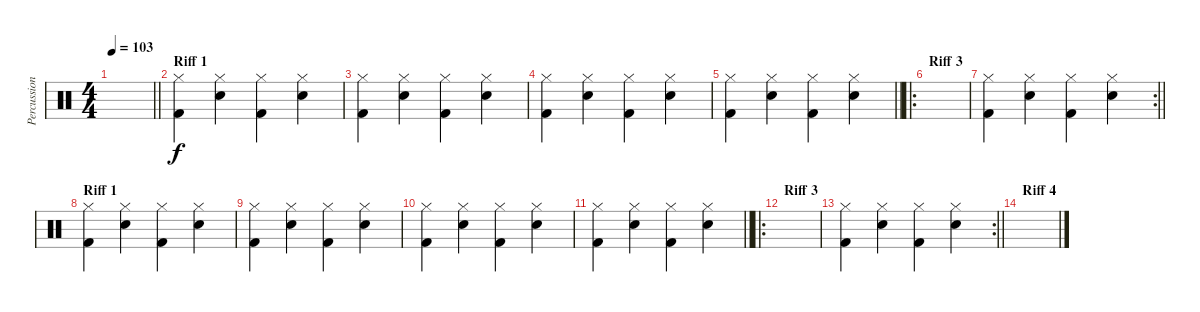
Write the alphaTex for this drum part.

\track ("Percussion" "Percussion") {instrument percussion}
\staff {score}
\articulation defaults
\ts (4 4)
\tempo 103
\clef neutral
\barLineRight lightlight
\ks c
|
\section ("" "Riff 1")
("Hi-Hat (closed)" "Kick (hit) 2").4 ("Hi-Hat (closed)" "Electric Snare (hit)").4 ("Hi-Hat (closed)" "Kick (hit) 2").4 ("Hi-Hat (closed)" "Electric Snare (hit)").4 |
("Hi-Hat (closed)" "Kick (hit) 2").4 ("Hi-Hat (closed)" "Electric Snare (hit)").4 ("Hi-Hat (closed)" "Kick (hit) 2").4 ("Hi-Hat (closed)" "Electric Snare (hit)").4 |
("Hi-Hat (closed)" "Kick (hit) 2").4 ("Hi-Hat (closed)" "Electric Snare (hit)").4 ("Hi-Hat (closed)" "Kick (hit) 2").4 ("Hi-Hat (closed)" "Electric Snare (hit)").4 |
\barLineRight lightlight
("Hi-Hat (closed)" "Kick (hit) 2").4 ("Hi-Hat (closed)" "Electric Snare (hit)").4 ("Hi-Hat (closed)" "Kick (hit) 2").4 ("Hi-Hat (closed)" "Electric Snare (hit)").4 |
\ro
\section ("" "Riff 3")
|
\rc 2
\barLineRight lightlight
("Hi-Hat (closed)" "Kick (hit) 2").4 ("Hi-Hat (closed)" "Electric Snare (hit)").4 ("Hi-Hat (closed)" "Kick (hit) 2").4 ("Hi-Hat (closed)" "Electric Snare (hit)").4 |
\section ("" "Riff 1")
("Hi-Hat (closed)" "Kick (hit) 2").4 ("Hi-Hat (closed)" "Electric Snare (hit)").4 ("Hi-Hat (closed)" "Kick (hit) 2").4 ("Hi-Hat (closed)" "Electric Snare (hit)").4 |
("Hi-Hat (closed)" "Kick (hit) 2").4 ("Hi-Hat (closed)" "Electric Snare (hit)").4 ("Hi-Hat (closed)" "Kick (hit) 2").4 ("Hi-Hat (closed)" "Electric Snare (hit)").4 |
("Hi-Hat (closed)" "Kick (hit) 2").4 ("Hi-Hat (closed)" "Electric Snare (hit)").4 ("Hi-Hat (closed)" "Kick (hit) 2").4 ("Hi-Hat (closed)" "Electric Snare (hit)").4 |
\barLineRight lightlight
("Hi-Hat (closed)" "Kick (hit) 2").4 ("Hi-Hat (closed)" "Electric Snare (hit)").4 ("Hi-Hat (closed)" "Kick (hit) 2").4 ("Hi-Hat (closed)" "Electric Snare (hit)").4 |
\ro
\section ("" "Riff 3")
|
\rc 2
\barLineRight lightlight
("Hi-Hat (closed)" "Kick (hit) 2").4 ("Hi-Hat (closed)" "Electric Snare (hit)").4 ("Hi-Hat (closed)" "Kick (hit) 2").4 ("Hi-Hat (closed)" "Electric Snare (hit)").4 |
\section ("" "Riff 4")
